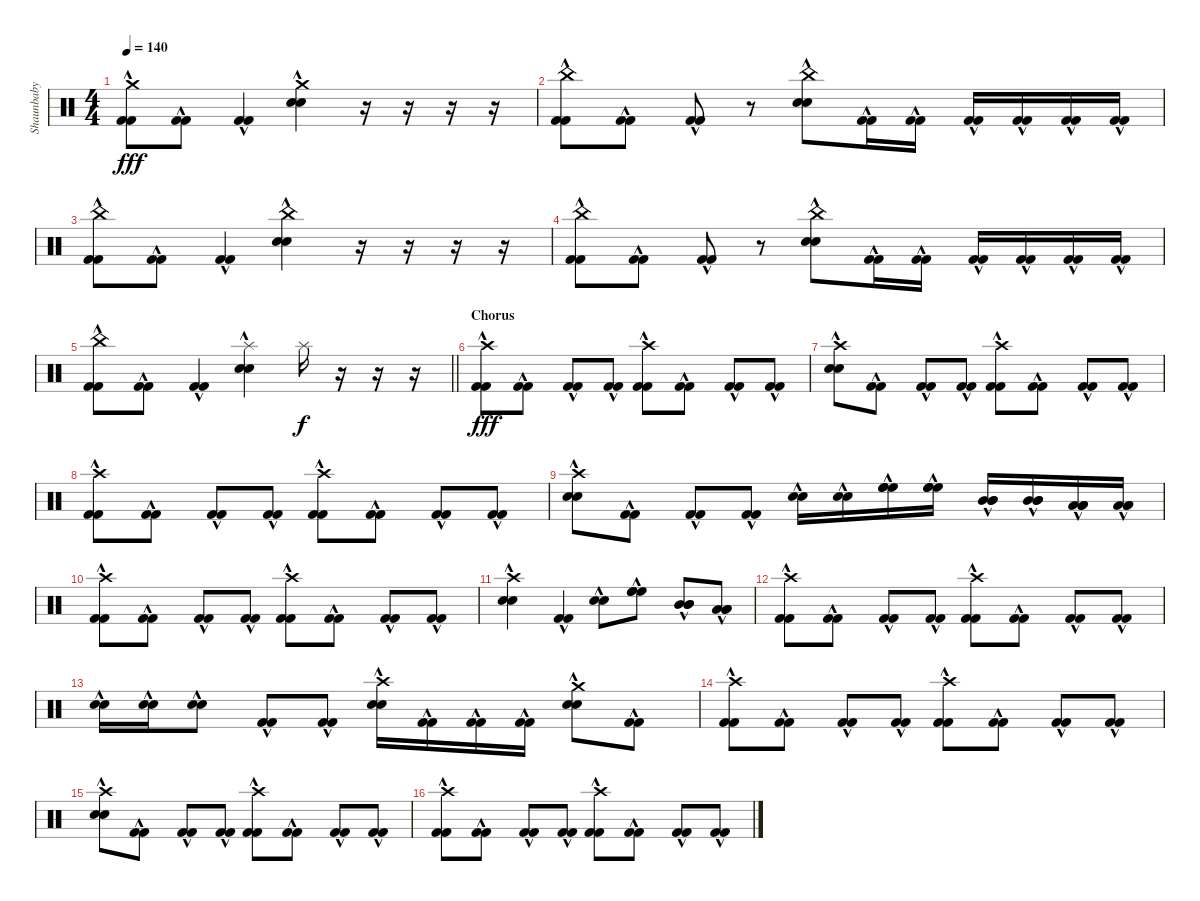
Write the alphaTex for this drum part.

\track ("Shaunbaby" "Shaunbaby") {instrument percussion}
\staff {score}
\articulation defaults
\ts (4 4)
\tempo 140
\clef neutral
\ks c
("Crash medium (hit)" "Kick (hit) 2"{hac} "Kick (hit) 2"{hac}).8{dy fff} ("Kick (hit) 2"{hac} "Kick (hit) 2"{hac}).8 ("Kick (hit) 2"{hac} "Kick (hit) 2"{hac}).4 ("Crash medium (hit)" "Electric Snare (hit)"{hac} "Electric Snare (hit)"{hac}).4 r.16 r.16 r.16 r.16 |
("China (hit)" "Kick (hit) 2"{hac} "Kick (hit) 2"{hac}).8 ("Kick (hit) 2"{hac} "Kick (hit) 2"{hac}).8 ("Kick (hit) 2"{hac} "Kick (hit) 2"{hac}).8 r.8 ("China (hit)" "Electric Snare (hit)"{hac} "Electric Snare (hit)"{hac}).8 ("Kick (hit) 2"{hac} "Kick (hit) 2"{hac}).16 ("Kick (hit) 2"{hac} "Kick (hit) 2"{hac}).16 ("Kick (hit) 2"{hac} "Kick (hit) 2"{hac}).16 ("Kick (hit) 2"{hac} "Kick (hit) 2"{hac}).16 ("Kick (hit) 2"{hac} "Kick (hit) 2"{hac}).16 ("Kick (hit) 2"{hac} "Kick (hit) 2"{hac}).16 |
("China (hit)" "Kick (hit) 2"{hac} "Kick (hit) 2"{hac}).8 ("Kick (hit) 2"{hac} "Kick (hit) 2"{hac}).8 ("Kick (hit) 2"{hac} "Kick (hit) 2"{hac}).4 ("China (hit)" "Electric Snare (hit)"{hac} "Electric Snare (hit)"{hac}).4 r.16 r.16 r.16 r.16 |
("China (hit)" "Kick (hit) 2"{hac} "Kick (hit) 2"{hac}).8 ("Kick (hit) 2"{hac} "Kick (hit) 2"{hac}).8 ("Kick (hit) 2"{hac} "Kick (hit) 2"{hac}).8 r.8 ("China (hit)" "Electric Snare (hit)"{hac} "Electric Snare (hit)"{hac}).8 ("Kick (hit) 2"{hac} "Kick (hit) 2"{hac}).16 ("Kick (hit) 2"{hac} "Kick (hit) 2"{hac}).16 ("Kick (hit) 2"{hac} "Kick (hit) 2"{hac}).16 ("Kick (hit) 2"{hac} "Kick (hit) 2"{hac}).16 ("Kick (hit) 2"{hac} "Kick (hit) 2"{hac}).16 ("Kick (hit) 2"{hac} "Kick (hit) 2"{hac}).16 |
\barLineRight lightlight
("China (hit)" "Kick (hit) 2"{hac} "Kick (hit) 2"{hac}).8 ("Kick (hit) 2"{hac} "Kick (hit) 2"{hac}).8 ("Kick (hit) 2"{hac} "Kick (hit) 2"{hac}).4 ("Splash (hit)" "Electric Snare (hit)"{hac} "Electric Snare (hit)"{hac}).4 "Splash (hit)".16{dy f} r.16 r.16 r.16 |
\section ("" "Chorus")
("Crash high (hit)" "Kick (hit) 2"{hac} "Kick (hit) 2"{hac}).8{dy fff} ("Kick (hit) 2"{hac} "Kick (hit) 2"{hac}).8 ("Kick (hit) 2"{hac} "Kick (hit) 2"{hac}).8 ("Kick (hit) 2"{hac} "Kick (hit) 2"{hac}).8 ("Crash high (hit)" "Kick (hit) 2"{hac} "Kick (hit) 2"{hac}).8 ("Kick (hit) 2"{hac} "Kick (hit) 2"{hac}).8 ("Kick (hit) 2"{hac} "Kick (hit) 2"{hac}).8 ("Kick (hit) 2"{hac} "Kick (hit) 2"{hac}).8 |
("Crash high (hit)" "Electric Snare (hit)"{hac} "Electric Snare (hit)"{hac}).8 ("Kick (hit) 2"{hac} "Kick (hit) 2"{hac}).8 ("Kick (hit) 2"{hac} "Kick (hit) 2"{hac}).8 ("Kick (hit) 2"{hac} "Kick (hit) 2"{hac}).8 ("Crash high (hit)" "Kick (hit) 2"{hac} "Kick (hit) 2"{hac}).8 ("Kick (hit) 2"{hac} "Kick (hit) 2"{hac}).8 ("Kick (hit) 2"{hac} "Kick (hit) 2"{hac}).8 ("Kick (hit) 2"{hac} "Kick (hit) 2"{hac}).8 |
("Crash high (hit)" "Kick (hit) 2"{hac} "Kick (hit) 2"{hac}).8 ("Kick (hit) 2"{hac} "Kick (hit) 2"{hac}).8 ("Kick (hit) 2"{hac} "Kick (hit) 2"{hac}).8 ("Kick (hit) 2"{hac} "Kick (hit) 2"{hac}).8 ("Crash high (hit)" "Kick (hit) 2"{hac} "Kick (hit) 2"{hac}).8 ("Kick (hit) 2"{hac} "Kick (hit) 2"{hac}).8 ("Kick (hit) 2"{hac} "Kick (hit) 2"{hac}).8 ("Kick (hit) 2"{hac} "Kick (hit) 2"{hac}).8 |
("Crash high (hit)" "Electric Snare (hit)"{hac} "Electric Snare (hit)"{hac}).8 ("Kick (hit) 2"{hac} "Kick (hit) 2"{hac}).8 ("Kick (hit) 2"{hac} "Kick (hit) 2"{hac}).8 ("Kick (hit) 2"{hac} "Kick (hit) 2"{hac}).8 ("Electric Snare (hit)"{hac} "Electric Snare (hit)"{hac}).16 ("Electric Snare (hit)"{hac} "Electric Snare (hit)"{hac}).16 ("High Floor Tom (hit)"{hac} "High Floor Tom (hit)"{hac} "High Floor Tom (hit)"{hac}).16 ("High Floor Tom (hit)"{hac} "High Floor Tom (hit)"{hac} "High Floor Tom (hit)"{hac}).16 ("Mid Tom (hit)"{hac} "Mid Tom (hit)"{hac} "Mid Tom (hit)"{hac}).16 ("Mid Tom (hit)"{hac} "Mid Tom (hit)"{hac} "Mid Tom (hit)"{hac}).16 ("Low Floor Tom (hit)"{hac} "Low Floor Tom (hit)"{hac} "Low Floor Tom (hit)"{hac}).16 ("Low Floor Tom (hit)"{hac} "Low Floor Tom (hit)"{hac} "Low Floor Tom (hit)"{hac}).16 |
("Crash high (hit)" "Kick (hit) 2"{hac} "Kick (hit) 2"{hac}).8 ("Kick (hit) 2"{hac} "Kick (hit) 2"{hac}).8 ("Kick (hit) 2"{hac} "Kick (hit) 2"{hac}).8 ("Kick (hit) 2"{hac} "Kick (hit) 2"{hac}).8 ("Crash high (hit)" "Kick (hit) 2"{hac} "Kick (hit) 2"{hac}).8 ("Kick (hit) 2"{hac} "Kick (hit) 2"{hac}).8 ("Kick (hit) 2"{hac} "Kick (hit) 2"{hac}).8 ("Kick (hit) 2"{hac} "Kick (hit) 2"{hac}).8 |
("Crash high (hit)" "Electric Snare (hit)"{hac} "Electric Snare (hit)"{hac}).4 ("Kick (hit) 2"{hac} "Kick (hit) 2"{hac}).4 ("Electric Snare (hit)"{hac} "Electric Snare (hit)"{hac}).8 ("High Floor Tom (hit)"{hac} "High Floor Tom (hit)"{hac} "High Floor Tom (hit)"{hac}).8 ("Mid Tom (hit)"{hac} "Mid Tom (hit)"{hac} "Mid Tom (hit)"{hac}).8 ("Low Floor Tom (hit)"{hac} "Low Floor Tom (hit)"{hac} "Low Floor Tom (hit)"{hac}).8 |
("Crash high (hit)" "Kick (hit) 2"{hac} "Kick (hit) 2"{hac}).8 ("Kick (hit) 2"{hac} "Kick (hit) 2"{hac}).8 ("Kick (hit) 2"{hac} "Kick (hit) 2"{hac}).8 ("Kick (hit) 2"{hac} "Kick (hit) 2"{hac}).8 ("Crash high (hit)" "Kick (hit) 2"{hac} "Kick (hit) 2"{hac}).8 ("Kick (hit) 2"{hac} "Kick (hit) 2"{hac}).8 ("Kick (hit) 2"{hac} "Kick (hit) 2"{hac}).8 ("Kick (hit) 2"{hac} "Kick (hit) 2"{hac}).8 |
("Electric Snare (hit)"{hac} "Electric Snare (hit)"{hac}).16 ("Electric Snare (hit)"{hac} "Electric Snare (hit)"{hac}).16 ("Electric Snare (hit)"{hac} "Electric Snare (hit)"{hac}).8 ("Kick (hit) 2"{hac} "Kick (hit) 2"{hac}).8 ("Kick (hit) 2"{hac} "Kick (hit) 2"{hac}).8 ("Crash high (hit)" "Electric Snare (hit)"{hac} "Electric Snare (hit)"{hac}).16 ("Kick (hit) 2"{hac} "Kick (hit) 2"{hac}).16 ("Kick (hit) 2"{hac} "Kick (hit) 2"{hac}).16 ("Kick (hit) 2"{hac} "Kick (hit) 2"{hac}).16 ("Crash medium (hit)" "Electric Snare (hit)"{hac} "Electric Snare (hit)"{hac}).8 ("Kick (hit) 2"{hac} "Kick (hit) 2"{hac}).8 |
("Crash high (hit)" "Kick (hit) 2"{hac} "Kick (hit) 2"{hac}).8 ("Kick (hit) 2"{hac} "Kick (hit) 2"{hac}).8 ("Kick (hit) 2"{hac} "Kick (hit) 2"{hac}).8 ("Kick (hit) 2"{hac} "Kick (hit) 2"{hac}).8 ("Crash high (hit)" "Kick (hit) 2"{hac} "Kick (hit) 2"{hac}).8 ("Kick (hit) 2"{hac} "Kick (hit) 2"{hac}).8 ("Kick (hit) 2"{hac} "Kick (hit) 2"{hac}).8 ("Kick (hit) 2"{hac} "Kick (hit) 2"{hac}).8 |
("Crash high (hit)" "Electric Snare (hit)"{hac} "Electric Snare (hit)"{hac}).8 ("Kick (hit) 2"{hac} "Kick (hit) 2"{hac}).8 ("Kick (hit) 2"{hac} "Kick (hit) 2"{hac}).8 ("Kick (hit) 2"{hac} "Kick (hit) 2"{hac}).8 ("Crash high (hit)" "Kick (hit) 2"{hac} "Kick (hit) 2"{hac}).8 ("Kick (hit) 2"{hac} "Kick (hit) 2"{hac}).8 ("Kick (hit) 2"{hac} "Kick (hit) 2"{hac}).8 ("Kick (hit) 2"{hac} "Kick (hit) 2"{hac}).8 |
("Crash high (hit)" "Kick (hit) 2"{hac} "Kick (hit) 2"{hac}).8 ("Kick (hit) 2"{hac} "Kick (hit) 2"{hac}).8 ("Kick (hit) 2"{hac} "Kick (hit) 2"{hac}).8 ("Kick (hit) 2"{hac} "Kick (hit) 2"{hac}).8 ("Crash high (hit)" "Kick (hit) 2"{hac} "Kick (hit) 2"{hac}).8 ("Kick (hit) 2"{hac} "Kick (hit) 2"{hac}).8 ("Kick (hit) 2"{hac} "Kick (hit) 2"{hac}).8 ("Kick (hit) 2"{hac} "Kick (hit) 2"{hac}).8
